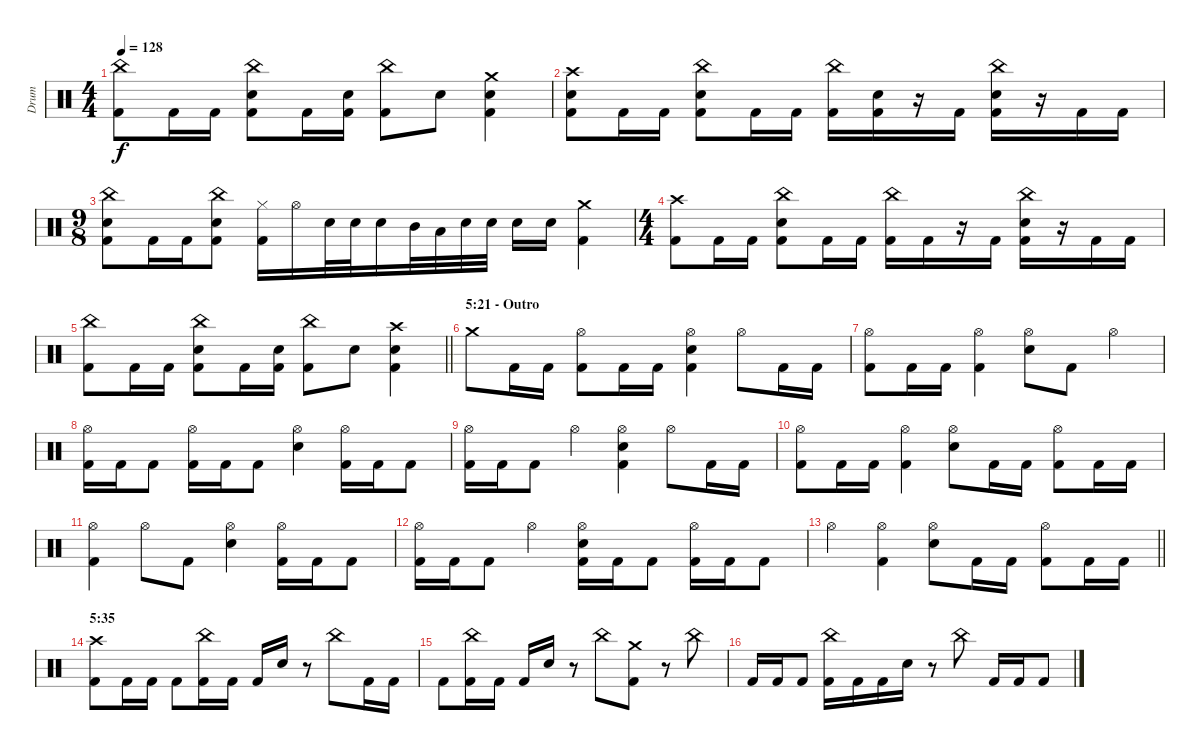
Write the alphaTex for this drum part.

\track ("Drum" "Drum") {instrument percussion}
\staff {score}
\articulation defaults
\ts (4 4)
\tempo 128
\clef neutral
\ks c
("China (hit)" "Kick (hit) 2").8{dy f} "Kick (hit) 2".16 "Kick (hit) 2".16 ("China (hit)" "Electric Snare (hit)" "Kick (hit) 2").8 "Kick (hit) 2".16 ("Electric Snare (hit)" "Kick (hit) 2").16 ("China (hit)" "Kick (hit) 2").8 "Electric Snare (hit)".8 ("Crash medium (hit)" "Electric Snare (hit)" "Kick (hit) 2").4 |
("Crash high (hit)" "Electric Snare (hit)" "Kick (hit) 2").8 "Kick (hit) 2".16 "Kick (hit) 2".16 ("China (hit)" "Electric Snare (hit)" "Kick (hit) 2").8 "Kick (hit) 2".16 "Kick (hit) 2".16 ("China (hit)" "Kick (hit) 2").16 ("Electric Snare (hit)" "Kick (hit) 2").16 r.16 "Kick (hit) 2".16 ("China (hit)" "Electric Snare (hit)" "Kick (hit) 2").16 r.16 "Kick (hit) 2".16 "Kick (hit) 2".16 |
\ts (9 8)
("China (hit)" "Electric Snare (hit)" "Kick (hit) 2").8 "Kick (hit) 2".16 "Kick (hit) 2".16 ("China (hit)" "Electric Snare (hit)" "Kick (hit) 2").8 ("Hi-Hat (closed)" "Kick (hit) 2").16 "Hi-Hat (open)".16 "Electric Snare (hit)".32 "Electric Snare (hit)".32 "Electric Snare (hit)".16 "Mid Tom (hit)".32 "Low Tom (hit)".32 "Electric Snare (hit)".32 "Electric Snare (hit)".32 "Electric Snare (hit)".16 "Electric Snare (hit)".16 ("Crash medium (hit)" "Kick (hit) 2").4 |
\ts (4 4)
("Crash high (hit)" "Kick (hit) 2").8 "Kick (hit) 2".16 "Kick (hit) 2".16 ("China (hit)" "Electric Snare (hit)" "Kick (hit) 2").8 "Kick (hit) 2".16 "Kick (hit) 2".16 ("China (hit)" "Kick (hit) 2").16 "Kick (hit) 2".16 r.16 "Kick (hit) 2".16 ("China (hit)" "Electric Snare (hit)" "Kick (hit) 2").16 r.16 "Kick (hit) 2".16 "Kick (hit) 2".16 |
\barLineRight lightlight
("China (hit)" "Kick (hit) 2").8 "Kick (hit) 2".16 "Kick (hit) 2".16 ("China (hit)" "Electric Snare (hit)" "Kick (hit) 2").8 "Kick (hit) 2".16 ("Electric Snare (hit)" "Kick (hit) 2").16 ("China (hit)" "Kick (hit) 2").8 "Electric Snare (hit)".8 ("Crash high (hit)" "Electric Snare (hit)" "Kick (hit) 2").4 |
\section ("" "5:21 - Outro")
"Crash medium (hit)".8 "Kick (hit) 2".16 "Kick (hit) 2".16 ("Hi-Hat (open)" "Kick (hit) 2").8 "Kick (hit) 2".16 "Kick (hit) 2".16 ("Hi-Hat (open)" "Electric Snare (hit)" "Kick (hit) 2").4 "Hi-Hat (open)".8 "Kick (hit) 2".16 "Kick (hit) 2".16 |
("Hi-Hat (open)" "Kick (hit) 2").8 "Kick (hit) 2".16 "Kick (hit) 2".16 ("Hi-Hat (open)" "Kick (hit) 2").4 ("Hi-Hat (open)" "Electric Snare (hit)").8 "Kick (hit) 2".8 "Hi-Hat (open)".4 |
("Hi-Hat (open)" "Kick (hit) 2").16 "Kick (hit) 2".16 "Kick (hit) 2".8 ("Hi-Hat (open)" "Kick (hit) 2").16 "Kick (hit) 2".16 "Kick (hit) 2".8 ("Hi-Hat (open)" "Electric Snare (hit)").4 ("Hi-Hat (open)" "Kick (hit) 2").16 "Kick (hit) 2".16 "Kick (hit) 2".8 |
("Hi-Hat (open)" "Kick (hit) 2").16 "Kick (hit) 2".16 "Kick (hit) 2".8 "Hi-Hat (open)".4 ("Hi-Hat (open)" "Electric Snare (hit)" "Kick (hit) 2").4 "Hi-Hat (open)".8 "Kick (hit) 2".16 "Kick (hit) 2".16 |
("Hi-Hat (open)" "Kick (hit) 2").8 "Kick (hit) 2".16 "Kick (hit) 2".16 ("Hi-Hat (open)" "Kick (hit) 2").4 ("Hi-Hat (open)" "Electric Snare (hit)").8 "Kick (hit) 2".16 "Kick (hit) 2".16 ("Hi-Hat (open)" "Kick (hit) 2").8 "Kick (hit) 2".16 "Kick (hit) 2".16 |
("Hi-Hat (open)" "Kick (hit) 2").4 "Hi-Hat (open)".8 "Kick (hit) 2".8 ("Hi-Hat (open)" "Electric Snare (hit)").4 ("Hi-Hat (open)" "Kick (hit) 2").16 "Kick (hit) 2".16 "Kick (hit) 2".8 |
("Hi-Hat (open)" "Kick (hit) 2").16 "Kick (hit) 2".16 "Kick (hit) 2".8 "Hi-Hat (open)".4 ("Hi-Hat (open)" "Electric Snare (hit)" "Kick (hit) 2").16 "Kick (hit) 2".16 "Kick (hit) 2".8 ("Hi-Hat (open)" "Kick (hit) 2").16 "Kick (hit) 2".16 "Kick (hit) 2".8 |
\barLineRight lightlight "Hi-Hat (open)".4
("Hi-Hat (open)" "Kick (hit) 2").4 ("Hi-Hat (open)" "Electric Snare (hit)").8 "Kick (hit) 2".16 "Kick (hit) 2".16 ("Hi-Hat (open)" "Kick (hit) 2").8 "Kick (hit) 2".16 "Kick (hit) 2".16 |
\section ("" "5:35")
("Crash high (hit)" "Kick (hit) 2").8 "Kick (hit) 2".16 "Kick (hit) 2".16 "Kick (hit) 2".8 ("China (hit)" "Kick (hit) 2").16 "Kick (hit) 2".16 "Kick (hit) 2".16 "Electric Snare (hit)".16 r.8 "China (hit)".8 "Kick (hit) 2".16 "Kick (hit) 2".16 |
"Kick (hit) 2".8 ("China (hit)" "Kick (hit) 2").16 "Kick (hit) 2".16 "Kick (hit) 2".16 "Electric Snare (hit)".16 r.8 "China (hit)".8 ("Crash medium (hit)" "Kick (hit) 2").8 r.8 "China (hit)".8 |
"Kick (hit) 2".16 "Kick (hit) 2".16 "Kick (hit) 2".8 ("China (hit)" "Kick (hit) 2").16 "Kick (hit) 2".16 "Kick (hit) 2".16 "Electric Snare (hit)".16 r.8 "China (hit)".8 "Kick (hit) 2".16 "Kick (hit) 2".16 "Kick (hit) 2".8
